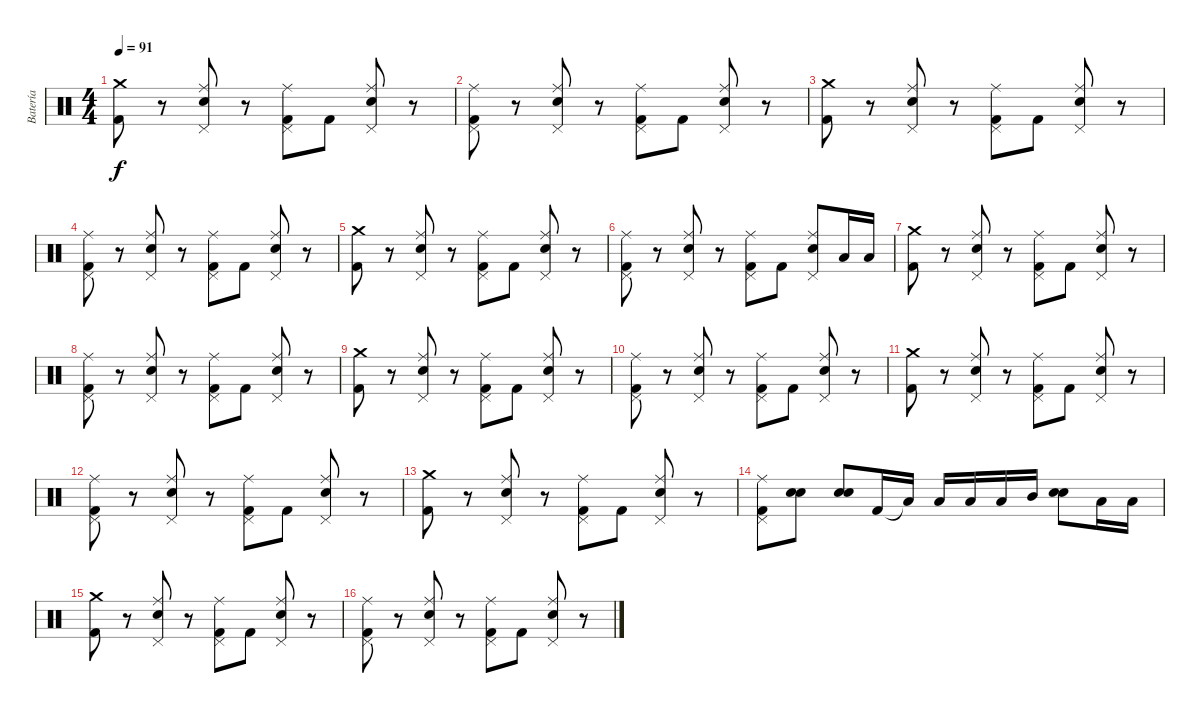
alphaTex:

\track ("Batería" "Batería") {instrument percussion}
\staff {score}
\articulation defaults
\ts (4 4)
\tempo 91
\clef neutral
\ks c
("Crash medium (hit)" "Kick (hit) 2").8{dy f} r.8 ("Pedal Hi-Hat (hit)" "Snare (hit) 2" "Ride (middle)").8 r.8 ("Pedal Hi-Hat (hit)" "Kick (hit) 2" "Ride (middle)").8 "Kick (hit) 2".8 ("Pedal Hi-Hat (hit)" "Snare (hit) 2" "Ride (middle)").8 r.8 |
("Pedal Hi-Hat (hit)" "Ride (middle)" "Kick (hit) 2").8 r.8 ("Pedal Hi-Hat (hit)" "Snare (hit) 2" "Ride (middle)").8 r.8 ("Pedal Hi-Hat (hit)" "Kick (hit) 2" "Ride (middle)").8 "Kick (hit) 2".8 ("Pedal Hi-Hat (hit)" "Snare (hit) 2" "Ride (middle)").8 r.8 |
("Crash medium (hit)" "Kick (hit) 2").8 r.8 ("Pedal Hi-Hat (hit)" "Snare (hit) 2" "Ride (middle)").8 r.8 ("Pedal Hi-Hat (hit)" "Kick (hit) 2" "Ride (middle)").8 "Kick (hit) 2".8 ("Pedal Hi-Hat (hit)" "Snare (hit) 2" "Ride (middle)").8 r.8 |
("Pedal Hi-Hat (hit)" "Ride (middle)" "Kick (hit) 2").8 r.8 ("Pedal Hi-Hat (hit)" "Snare (hit) 2" "Ride (middle)").8 r.8 ("Pedal Hi-Hat (hit)" "Kick (hit) 2" "Ride (middle)").8 "Kick (hit) 2".8 ("Pedal Hi-Hat (hit)" "Snare (hit) 2" "Ride (middle)").8 r.8 |
("Crash medium (hit)" "Kick (hit) 2").8 r.8 ("Pedal Hi-Hat (hit)" "Snare (hit) 2" "Ride (middle)").8 r.8 ("Pedal Hi-Hat (hit)" "Kick (hit) 2" "Ride (middle)").8 "Kick (hit) 2".8 ("Pedal Hi-Hat (hit)" "Snare (hit) 2" "Ride (middle)").8 r.8 |
("Pedal Hi-Hat (hit)" "Ride (middle)" "Kick (hit) 2").8 r.8 ("Pedal Hi-Hat (hit)" "Snare (hit) 2" "Ride (middle)").8 r.8 ("Pedal Hi-Hat (hit)" "Kick (hit) 2" "Ride (middle)").8 "Kick (hit) 2".8 ("Pedal Hi-Hat (hit)" "Snare (hit) 2" "Ride (middle)").8 "Low Tom (hit)".16 "Low Tom (hit)".16 |
("Crash medium (hit)" "Kick (hit) 2").8 r.8 ("Pedal Hi-Hat (hit)" "Snare (hit) 2" "Ride (middle)").8 r.8 ("Pedal Hi-Hat (hit)" "Kick (hit) 2" "Ride (middle)").8 "Kick (hit) 2".8 ("Pedal Hi-Hat (hit)" "Snare (hit) 2" "Ride (middle)").8 r.8 |
("Pedal Hi-Hat (hit)" "Ride (middle)" "Kick (hit) 2").8 r.8 ("Pedal Hi-Hat (hit)" "Snare (hit) 2" "Ride (middle)").8 r.8 ("Pedal Hi-Hat (hit)" "Kick (hit) 2" "Ride (middle)").8 "Kick (hit) 2".8 ("Pedal Hi-Hat (hit)" "Snare (hit) 2" "Ride (middle)").8 r.8 |
("Crash medium (hit)" "Kick (hit) 2").8 r.8 ("Pedal Hi-Hat (hit)" "Snare (hit) 2" "Ride (middle)").8 r.8 ("Pedal Hi-Hat (hit)" "Kick (hit) 2" "Ride (middle)").8 "Kick (hit) 2".8 ("Pedal Hi-Hat (hit)" "Snare (hit) 2" "Ride (middle)").8 r.8 |
("Pedal Hi-Hat (hit)" "Ride (middle)" "Kick (hit) 2").8 r.8 ("Pedal Hi-Hat (hit)" "Snare (hit) 2" "Ride (middle)").8 r.8 ("Pedal Hi-Hat (hit)" "Kick (hit) 2" "Ride (middle)").8 "Kick (hit) 2".8 ("Pedal Hi-Hat (hit)" "Snare (hit) 2" "Ride (middle)").8 r.8 |
("Crash medium (hit)" "Kick (hit) 2").8 r.8 ("Pedal Hi-Hat (hit)" "Snare (hit) 2" "Ride (middle)").8 r.8 ("Pedal Hi-Hat (hit)" "Kick (hit) 2" "Ride (middle)").8 "Kick (hit) 2".8 ("Pedal Hi-Hat (hit)" "Snare (hit) 2" "Ride (middle)").8 r.8 |
("Pedal Hi-Hat (hit)" "Ride (middle)" "Kick (hit) 2").8 r.8 ("Pedal Hi-Hat (hit)" "Snare (hit) 2" "Ride (middle)").8 r.8 ("Pedal Hi-Hat (hit)" "Kick (hit) 2" "Ride (middle)").8 "Kick (hit) 2".8 ("Pedal Hi-Hat (hit)" "Snare (hit) 2" "Ride (middle)").8 r.8 |
("Crash medium (hit)" "Kick (hit) 2").8 r.8 ("Pedal Hi-Hat (hit)" "Snare (hit) 2" "Ride (middle)").8 r.8 ("Pedal Hi-Hat (hit)" "Kick (hit) 2" "Ride (middle)").8 "Kick (hit) 2".8 ("Pedal Hi-Hat (hit)" "Snare (hit) 2" "Ride (middle)").8 r.8 |
("Pedal Hi-Hat (hit)" "Ride (middle)" "Kick (hit) 2").8 ("Snare (hit) 2" "Snare (hit) 2").8{bd 60} ("Snare (hit) 2" "Snare (hit) 2").8{bd 60} "Kick (hit) 2".16 "Low Tom (hit)"{t}.16 "Low Tom (hit)".16 "Low Tom (hit)".16 "Low Tom (hit)".16 "Mid Tom (hit)".16 ("Snare (hit) 2" "Snare (hit) 2").8 "Low Tom (hit)".16 "Low Tom (hit)".16 |
("Crash medium (hit)" "Kick (hit) 2").8 r.8 ("Pedal Hi-Hat (hit)" "Snare (hit) 2" "Ride (middle)").8 r.8 ("Pedal Hi-Hat (hit)" "Kick (hit) 2" "Ride (middle)").8 "Kick (hit) 2".8 ("Pedal Hi-Hat (hit)" "Snare (hit) 2" "Ride (middle)").8 r.8 |
("Pedal Hi-Hat (hit)" "Ride (middle)" "Kick (hit) 2").8 r.8 ("Pedal Hi-Hat (hit)" "Snare (hit) 2" "Ride (middle)").8 r.8 ("Pedal Hi-Hat (hit)" "Kick (hit) 2" "Ride (middle)").8 "Kick (hit) 2".8 ("Pedal Hi-Hat (hit)" "Snare (hit) 2" "Ride (middle)").8 r.8
